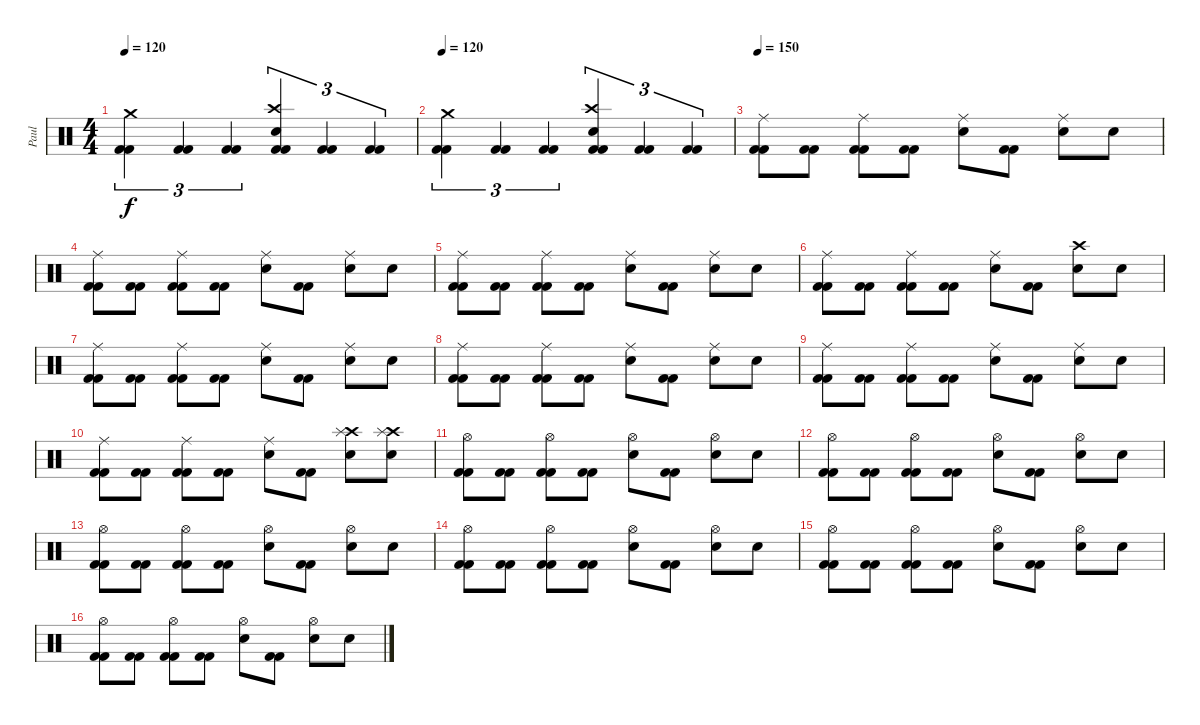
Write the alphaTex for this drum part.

\track ("Paul " "Paul ") {instrument percussion}
\staff {score}
\articulation defaults
\ts (4 4)
\tempo 120
\clef neutral
\ks c
("Crash medium (hit)" "Kick (hit) 2" "Kick (hit) 2").4{tu (3 2) dy f} ("Kick (hit) 2" "Kick (hit) 2").4{tu (3 2)} ("Kick (hit) 2" "Kick (hit) 2").4{tu (3 2)} ("Crash high (hit)" "Snare (hit) 2" "Kick (hit) 2" "Kick (hit) 2").4{tu (3 2)} ("Kick (hit) 2" "Kick (hit) 2").4{tu (3 2)} ("Kick (hit) 2" "Kick (hit) 2").4{tu (3 2)} |
\tempo 120
("Crash medium (hit)" "Kick (hit) 2" "Kick (hit) 2").4{tu (3 2)} ("Kick (hit) 2" "Kick (hit) 2").4{tu (3 2)} ("Kick (hit) 2" "Kick (hit) 2").4{tu (3 2)} ("Crash high (hit)" "Snare (hit) 2" "Kick (hit) 2" "Kick (hit) 2").4{tu (3 2)} ("Kick (hit) 2" "Kick (hit) 2").4{tu (3 2)} ("Kick (hit) 2" "Kick (hit) 2").4{tu (3 2)} |
\tempo 150
("Ride (middle)" "Kick (hit) 2" "Kick (hit) 2").8{txt " "} ("Kick (hit) 2" "Kick (hit) 2").8{txt " "} ("Ride (middle)" "Kick (hit) 2" "Kick (hit) 2").8 ("Kick (hit) 2" "Kick (hit) 2").8 ("Ride (middle)" "Snare (hit) 2").8 ("Kick (hit) 2" "Kick (hit) 2").8 ("Ride (middle)" "Snare (hit) 2").8 "Snare (hit) 2".8 |
("Ride (middle)" "Kick (hit) 2" "Kick (hit) 2").8 ("Kick (hit) 2" "Kick (hit) 2").8 ("Ride (middle)" "Kick (hit) 2" "Kick (hit) 2").8 ("Kick (hit) 2" "Kick (hit) 2").8 ("Ride (middle)" "Snare (hit) 2").8 ("Kick (hit) 2" "Kick (hit) 2").8 ("Ride (middle)" "Snare (hit) 2").8 "Snare (hit) 2".8 |
("Ride (middle)" "Kick (hit) 2" "Kick (hit) 2").8 ("Kick (hit) 2" "Kick (hit) 2").8 ("Ride (middle)" "Kick (hit) 2" "Kick (hit) 2").8 ("Kick (hit) 2" "Kick (hit) 2").8 ("Ride (middle)" "Snare (hit) 2").8 ("Kick (hit) 2" "Kick (hit) 2").8 ("Ride (middle)" "Snare (hit) 2").8 "Snare (hit) 2".8 |
("Ride (middle)" "Kick (hit) 2" "Kick (hit) 2").8 ("Kick (hit) 2" "Kick (hit) 2").8 ("Ride (middle)" "Kick (hit) 2" "Kick (hit) 2").8 ("Kick (hit) 2" "Kick (hit) 2").8 ("Ride (middle)" "Snare (hit) 2").8 ("Kick (hit) 2" "Kick (hit) 2").8 ("Crash high (hit)" "Snare (hit) 2").8 "Snare (hit) 2".8 |
("Ride (middle)" "Kick (hit) 2" "Kick (hit) 2").8 ("Kick (hit) 2" "Kick (hit) 2").8 ("Ride (middle)" "Kick (hit) 2" "Kick (hit) 2").8 ("Kick (hit) 2" "Kick (hit) 2").8 ("Ride (middle)" "Snare (hit) 2").8 ("Kick (hit) 2" "Kick (hit) 2").8 ("Ride (middle)" "Snare (hit) 2").8 "Snare (hit) 2".8 |
("Ride (middle)" "Kick (hit) 2" "Kick (hit) 2").8 ("Kick (hit) 2" "Kick (hit) 2").8 ("Ride (middle)" "Kick (hit) 2" "Kick (hit) 2").8 ("Kick (hit) 2" "Kick (hit) 2").8 ("Ride (middle)" "Snare (hit) 2").8 ("Kick (hit) 2" "Kick (hit) 2").8 ("Ride (middle)" "Snare (hit) 2").8 "Snare (hit) 2".8 |
("Ride (middle)" "Kick (hit) 2" "Kick (hit) 2").8 ("Kick (hit) 2" "Kick (hit) 2").8 ("Ride (middle)" "Kick (hit) 2" "Kick (hit) 2").8 ("Kick (hit) 2" "Kick (hit) 2").8 ("Ride (middle)" "Snare (hit) 2").8 ("Kick (hit) 2" "Kick (hit) 2").8 ("Ride (middle)" "Snare (hit) 2").8 "Snare (hit) 2".8 |
("Ride (middle)" "Kick (hit) 2" "Kick (hit) 2").8 ("Kick (hit) 2" "Kick (hit) 2").8 ("Ride (middle)" "Kick (hit) 2" "Kick (hit) 2").8 ("Kick (hit) 2" "Kick (hit) 2").8 ("Ride (middle)" "Snare (hit) 2").8 ("Kick (hit) 2" "Kick (hit) 2").8 ("Crash high (hit)" "Splash (hit)" "Snare (hit) 2").8 ("Crash high (hit)" "Splash (hit)" "Snare (hit) 2").8 |
("Hi-Hat (open)" "Kick (hit) 2" "Kick (hit) 2").8 ("Kick (hit) 2" "Kick (hit) 2").8 ("Hi-Hat (open)" "Kick (hit) 2" "Kick (hit) 2").8 ("Kick (hit) 2" "Kick (hit) 2").8 ("Hi-Hat (open)" "Snare (hit) 2").8 ("Kick (hit) 2" "Kick (hit) 2").8 ("Hi-Hat (open)" "Snare (hit) 2").8 "Snare (hit) 2".8 |
("Hi-Hat (open)" "Kick (hit) 2" "Kick (hit) 2").8 ("Kick (hit) 2" "Kick (hit) 2").8 ("Hi-Hat (open)" "Kick (hit) 2" "Kick (hit) 2").8 ("Kick (hit) 2" "Kick (hit) 2").8 ("Hi-Hat (open)" "Snare (hit) 2").8 ("Kick (hit) 2" "Kick (hit) 2").8 ("Hi-Hat (open)" "Snare (hit) 2").8 "Snare (hit) 2".8 |
("Hi-Hat (open)" "Kick (hit) 2" "Kick (hit) 2").8 ("Kick (hit) 2" "Kick (hit) 2").8 ("Hi-Hat (open)" "Kick (hit) 2" "Kick (hit) 2").8 ("Kick (hit) 2" "Kick (hit) 2").8 ("Hi-Hat (open)" "Snare (hit) 2").8 ("Kick (hit) 2" "Kick (hit) 2").8 ("Hi-Hat (open)" "Snare (hit) 2").8 "Snare (hit) 2".8 |
("Hi-Hat (open)" "Kick (hit) 2" "Kick (hit) 2").8 ("Kick (hit) 2" "Kick (hit) 2").8 ("Hi-Hat (open)" "Kick (hit) 2" "Kick (hit) 2").8 ("Kick (hit) 2" "Kick (hit) 2").8 ("Hi-Hat (open)" "Snare (hit) 2").8 ("Kick (hit) 2" "Kick (hit) 2").8 ("Hi-Hat (open)" "Snare (hit) 2").8 "Snare (hit) 2".8 |
("Hi-Hat (open)" "Kick (hit) 2" "Kick (hit) 2").8 ("Kick (hit) 2" "Kick (hit) 2").8 ("Hi-Hat (open)" "Kick (hit) 2" "Kick (hit) 2").8 ("Kick (hit) 2" "Kick (hit) 2").8 ("Hi-Hat (open)" "Snare (hit) 2").8 ("Kick (hit) 2" "Kick (hit) 2").8 ("Hi-Hat (open)" "Snare (hit) 2").8 "Snare (hit) 2".8 |
("Hi-Hat (open)" "Kick (hit) 2" "Kick (hit) 2").8 ("Kick (hit) 2" "Kick (hit) 2").8 ("Hi-Hat (open)" "Kick (hit) 2" "Kick (hit) 2").8 ("Kick (hit) 2" "Kick (hit) 2").8 ("Hi-Hat (open)" "Snare (hit) 2").8 ("Kick (hit) 2" "Kick (hit) 2").8 ("Hi-Hat (open)" "Snare (hit) 2").8 "Snare (hit) 2".8
